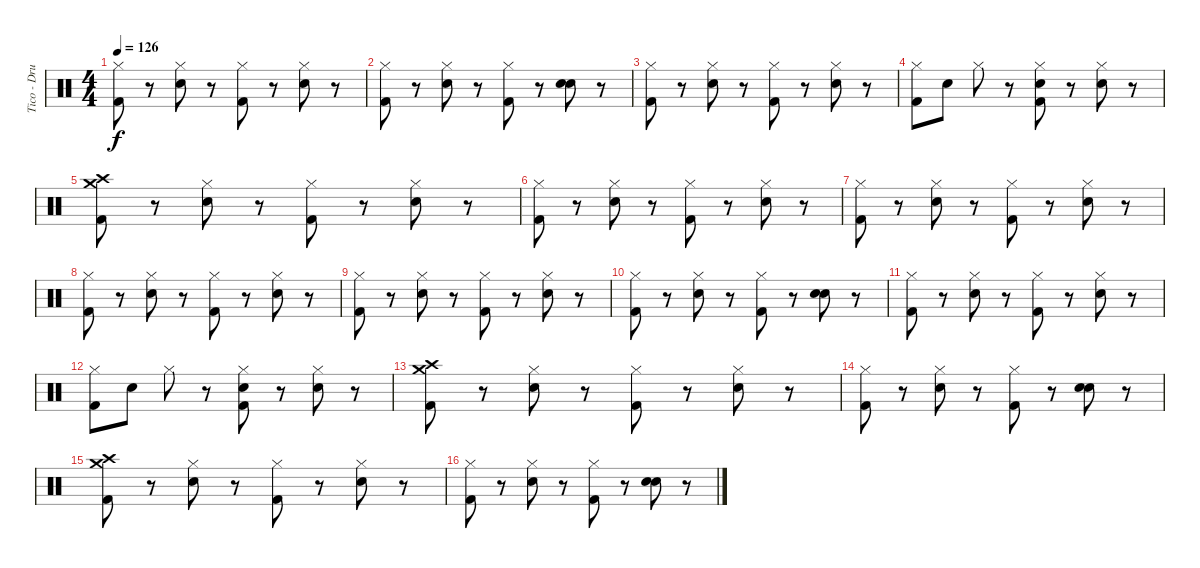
\track ("Tico - Drums" "Tico - Dru") {instrument percussion}
\staff {score}
\articulation defaults
\ts (4 4)
\tempo 126
\clef neutral
\ks c
("Hi-Hat (closed)" "Kick (hit) 2").8{dy f} r.8 ("Hi-Hat (closed)" "Snare (hit) 2").8 r.8 ("Hi-Hat (closed)" "Kick (hit) 2").8 r.8 ("Hi-Hat (closed)" "Snare (hit) 2").8 r.8 |
("Hi-Hat (closed)" "Kick (hit) 2").8 r.8 ("Hi-Hat (closed)" "Snare (hit) 2").8 r.8 ("Hi-Hat (closed)" "Kick (hit) 2").8 r.8 ("Snare (hit) 2" "Snare (hit) 2").8 r.8 |
("Hi-Hat (closed)" "Kick (hit) 2").8 r.8 ("Hi-Hat (closed)" "Snare (hit) 2").8 r.8 ("Hi-Hat (closed)" "Kick (hit) 2").8 r.8 ("Hi-Hat (closed)" "Snare (hit) 2").8 r.8 |
("Hi-Hat (closed)" "Kick (hit) 2").8 "Snare (hit) 2".8 "Hi-Hat (closed)".8 r.8 ("Hi-Hat (closed)" "Snare (hit) 2" "Kick (hit) 2").8 r.8 ("Hi-Hat (closed)" "Snare (hit) 2").8 r.8 |
("Crash medium (hit)" "Kick (hit) 2" "Crash high (hit)").8 r.8 ("Hi-Hat (closed)" "Snare (hit) 2").8 r.8 ("Hi-Hat (closed)" "Kick (hit) 2").8 r.8 ("Hi-Hat (closed)" "Snare (hit) 2").8 r.8 |
("Hi-Hat (closed)" "Kick (hit) 2").8 r.8 ("Hi-Hat (closed)" "Snare (hit) 2").8 r.8 ("Hi-Hat (closed)" "Kick (hit) 2").8 r.8 ("Hi-Hat (closed)" "Snare (hit) 2").8 r.8 |
("Hi-Hat (closed)" "Kick (hit) 2").8 r.8 ("Hi-Hat (closed)" "Snare (hit) 2").8 r.8 ("Hi-Hat (closed)" "Kick (hit) 2").8 r.8 ("Hi-Hat (closed)" "Snare (hit) 2").8 r.8 |
("Hi-Hat (closed)" "Kick (hit) 2").8 r.8 ("Hi-Hat (closed)" "Snare (hit) 2").8 r.8 ("Hi-Hat (closed)" "Kick (hit) 2").8 r.8 ("Hi-Hat (closed)" "Snare (hit) 2").8 r.8 |
("Hi-Hat (closed)" "Kick (hit) 2").8 r.8 ("Hi-Hat (closed)" "Snare (hit) 2").8 r.8 ("Hi-Hat (closed)" "Kick (hit) 2").8 r.8 ("Hi-Hat (closed)" "Snare (hit) 2").8 r.8 |
("Hi-Hat (closed)" "Kick (hit) 2").8 r.8 ("Hi-Hat (closed)" "Snare (hit) 2").8 r.8 ("Hi-Hat (closed)" "Kick (hit) 2").8 r.8 ("Snare (hit) 2" "Snare (hit) 2").8 r.8 |
("Hi-Hat (closed)" "Kick (hit) 2").8 r.8 ("Hi-Hat (closed)" "Snare (hit) 2").8 r.8 ("Hi-Hat (closed)" "Kick (hit) 2").8 r.8 ("Hi-Hat (closed)" "Snare (hit) 2").8 r.8 |
("Hi-Hat (closed)" "Kick (hit) 2").8 "Snare (hit) 2".8 "Hi-Hat (closed)".8 r.8 ("Hi-Hat (closed)" "Snare (hit) 2" "Kick (hit) 2").8 r.8 ("Hi-Hat (closed)" "Snare (hit) 2").8 r.8 |
("Crash medium (hit)" "Kick (hit) 2" "Crash high (hit)").8 r.8 ("Hi-Hat (closed)" "Snare (hit) 2").8 r.8 ("Hi-Hat (closed)" "Kick (hit) 2").8 r.8 ("Hi-Hat (closed)" "Snare (hit) 2").8 r.8 |
("Hi-Hat (closed)" "Kick (hit) 2").8 r.8 ("Hi-Hat (closed)" "Snare (hit) 2").8 r.8 ("Hi-Hat (closed)" "Kick (hit) 2").8 r.8 ("Snare (hit) 2" "Snare (hit) 2").8 r.8 |
("Crash medium (hit)" "Kick (hit) 2" "Crash high (hit)").8 r.8 ("Hi-Hat (closed)" "Snare (hit) 2").8 r.8 ("Hi-Hat (closed)" "Kick (hit) 2").8 r.8 ("Hi-Hat (closed)" "Snare (hit) 2").8 r.8 |
("Hi-Hat (closed)" "Kick (hit) 2").8 r.8 ("Hi-Hat (closed)" "Snare (hit) 2").8 r.8 ("Hi-Hat (closed)" "Kick (hit) 2").8 r.8 ("Snare (hit) 2" "Snare (hit) 2").8 r.8
